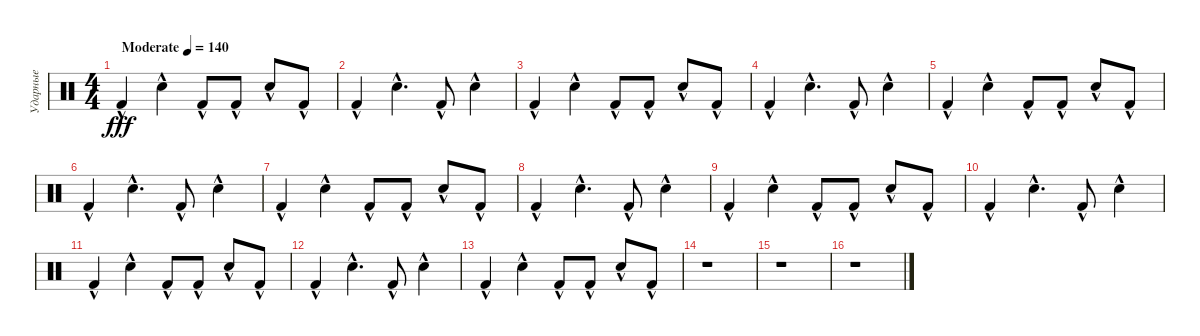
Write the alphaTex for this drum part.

\track ("Ударные" "Ударные") {instrument percussion}
\staff {score}
\articulation defaults
\ts (4 4)
\tempo (140 "Moderate")
\clef neutral
\ks c "Kick (hit) 2"{hac}.4{dy fff} "Snare (hit) 2"{hac}.4 "Kick (hit) 2"{hac}.8 "Kick (hit) 2"{hac}.8 "Snare (hit) 2"{hac}.8 "Kick (hit) 2"{hac}.8
|
"Kick (hit) 2"{hac}.4 "Snare (hit) 2"{hac}.4{d} "Kick (hit) 2"{hac}.8 "Snare (hit) 2"{hac}.4 |
"Kick (hit) 2"{hac}.4 "Snare (hit) 2"{hac}.4 "Kick (hit) 2"{hac}.8 "Kick (hit) 2"{hac}.8 "Snare (hit) 2"{hac}.8 "Kick (hit) 2"{hac}.8 |
"Kick (hit) 2"{hac}.4 "Snare (hit) 2"{hac}.4{d} "Kick (hit) 2"{hac}.8 "Snare (hit) 2"{hac}.4 |
"Kick (hit) 2"{hac}.4 "Snare (hit) 2"{hac}.4 "Kick (hit) 2"{hac}.8 "Kick (hit) 2"{hac}.8 "Snare (hit) 2"{hac}.8 "Kick (hit) 2"{hac}.8 |
"Kick (hit) 2"{hac}.4 "Snare (hit) 2"{hac}.4{d} "Kick (hit) 2"{hac}.8 "Snare (hit) 2"{hac}.4 |
"Kick (hit) 2"{hac}.4 "Snare (hit) 2"{hac}.4 "Kick (hit) 2"{hac}.8 "Kick (hit) 2"{hac}.8 "Snare (hit) 2"{hac}.8 "Kick (hit) 2"{hac}.8 |
"Kick (hit) 2"{hac}.4 "Snare (hit) 2"{hac}.4{d} "Kick (hit) 2"{hac}.8 "Snare (hit) 2"{hac}.4 |
"Kick (hit) 2"{hac}.4 "Snare (hit) 2"{hac}.4 "Kick (hit) 2"{hac}.8 "Kick (hit) 2"{hac}.8 "Snare (hit) 2"{hac}.8 "Kick (hit) 2"{hac}.8 |
"Kick (hit) 2"{hac}.4 "Snare (hit) 2"{hac}.4{d} "Kick (hit) 2"{hac}.8 "Snare (hit) 2"{hac}.4 |
"Kick (hit) 2"{hac}.4 "Snare (hit) 2"{hac}.4 "Kick (hit) 2"{hac}.8 "Kick (hit) 2"{hac}.8 "Snare (hit) 2"{hac}.8 "Kick (hit) 2"{hac}.8 |
"Kick (hit) 2"{hac}.4 "Snare (hit) 2"{hac}.4{d} "Kick (hit) 2"{hac}.8 "Snare (hit) 2"{hac}.4 |
"Kick (hit) 2"{hac}.4 "Snare (hit) 2"{hac}.4 "Kick (hit) 2"{hac}.8 "Kick (hit) 2"{hac}.8 "Snare (hit) 2"{hac}.8 "Kick (hit) 2"{hac}.8 |
r.1 |
r.1 |
r.1
